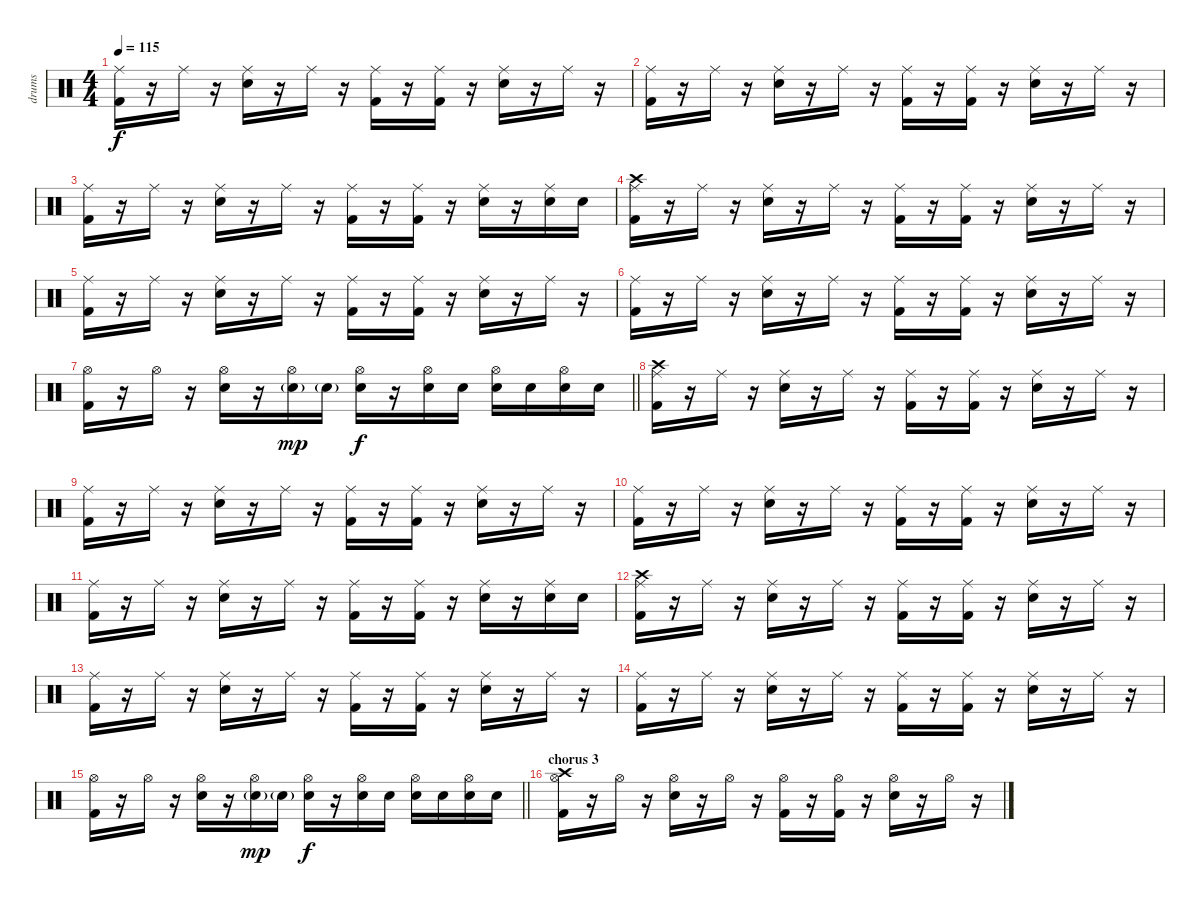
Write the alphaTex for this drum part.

\track ("drums" "drums") {instrument percussion}
\staff {score}
\articulation defaults
\ts (4 4)
\tempo 115
\clef neutral
\ks c
("Kick (hit) 2" "Ride (middle)").16{dy f} r.16 "Ride (middle)".16 r.16 ("Electric Snare (hit)" "Ride (middle)").16 r.16 "Ride (middle)".16 r.16 ("Kick (hit) 2" "Ride (middle)").16 r.16 ("Kick (hit) 2" "Ride (middle)").16 r.16 ("Electric Snare (hit)" "Ride (middle)").16 r.16 "Ride (middle)".16 r.16 |
("Kick (hit) 2" "Ride (middle)").16 r.16 "Ride (middle)".16 r.16 ("Electric Snare (hit)" "Ride (middle)").16 r.16 "Ride (middle)".16 r.16 ("Kick (hit) 2" "Ride (middle)").16 r.16 ("Kick (hit) 2" "Ride (middle)").16 r.16 ("Electric Snare (hit)" "Ride (middle)").16 r.16 "Ride (middle)".16 r.16 |
("Kick (hit) 2" "Ride (middle)").16 r.16 "Ride (middle)".16 r.16 ("Electric Snare (hit)" "Ride (middle)").16 r.16 "Ride (middle)".16 r.16 ("Kick (hit) 2" "Ride (middle)").16 r.16 ("Kick (hit) 2" "Ride (middle)").16 r.16 ("Electric Snare (hit)" "Ride (middle)").16 r.16 ("Electric Snare (hit)" "Ride (middle)").16 "Electric Snare (hit)".16 |
("Kick (hit) 2" "Ride (middle)" "Crash high (hit)").16 r.16 "Ride (middle)".16 r.16 ("Electric Snare (hit)" "Ride (middle)").16 r.16 "Ride (middle)".16 r.16 ("Kick (hit) 2" "Ride (middle)").16 r.16 ("Kick (hit) 2" "Ride (middle)").16 r.16 ("Electric Snare (hit)" "Ride (middle)").16 r.16 "Ride (middle)".16 r.16 |
("Kick (hit) 2" "Ride (middle)").16 r.16 "Ride (middle)".16 r.16 ("Electric Snare (hit)" "Ride (middle)").16 r.16 "Ride (middle)".16 r.16 ("Kick (hit) 2" "Ride (middle)").16 r.16 ("Kick (hit) 2" "Ride (middle)").16 r.16 ("Electric Snare (hit)" "Ride (middle)").16 r.16 "Ride (middle)".16 r.16 |
("Kick (hit) 2" "Ride (middle)").16 r.16 "Ride (middle)".16 r.16 ("Electric Snare (hit)" "Ride (middle)").16 r.16 "Ride (middle)".16 r.16 ("Kick (hit) 2" "Ride (middle)").16 r.16 ("Kick (hit) 2" "Ride (middle)").16 r.16 ("Electric Snare (hit)" "Ride (middle)").16 r.16 "Ride (middle)".16 r.16 |
\barLineRight lightlight
("Kick (hit) 2" "Hi-Hat (open)").16 r.16 "Hi-Hat (open)".16 r.16 ("Electric Snare (hit)" "Hi-Hat (open)").16 r.16 ("Electric Snare (hit)"{g} "Hi-Hat (open)").16{dy mp} "Electric Snare (hit)"{g}.16 ("Electric Snare (hit)" "Hi-Hat (open)").16{dy f} r.16 ("Electric Snare (hit)" "Hi-Hat (open)").16 "Electric Snare (hit)".16 ("Electric Snare (hit)" "Hi-Hat (open)").16 "Electric Snare (hit)".16 ("Electric Snare (hit)" "Hi-Hat (open)").16 "Electric Snare (hit)".16 |
("Kick (hit) 2" "Ride (middle)" "Crash high (hit)").16 r.16 "Ride (middle)".16 r.16 ("Electric Snare (hit)" "Ride (middle)").16 r.16 "Ride (middle)".16 r.16 ("Kick (hit) 2" "Ride (middle)").16 r.16 ("Kick (hit) 2" "Ride (middle)").16 r.16 ("Electric Snare (hit)" "Ride (middle)").16 r.16 "Ride (middle)".16 r.16 |
("Kick (hit) 2" "Ride (middle)").16 r.16 "Ride (middle)".16 r.16 ("Electric Snare (hit)" "Ride (middle)").16 r.16 "Ride (middle)".16 r.16 ("Kick (hit) 2" "Ride (middle)").16 r.16 ("Kick (hit) 2" "Ride (middle)").16 r.16 ("Electric Snare (hit)" "Ride (middle)").16 r.16 "Ride (middle)".16 r.16 |
("Kick (hit) 2" "Ride (middle)").16 r.16 "Ride (middle)".16 r.16 ("Electric Snare (hit)" "Ride (middle)").16 r.16 "Ride (middle)".16 r.16 ("Kick (hit) 2" "Ride (middle)").16 r.16 ("Kick (hit) 2" "Ride (middle)").16 r.16 ("Electric Snare (hit)" "Ride (middle)").16 r.16 "Ride (middle)".16 r.16 |
("Kick (hit) 2" "Ride (middle)").16 r.16 "Ride (middle)".16 r.16 ("Electric Snare (hit)" "Ride (middle)").16 r.16 "Ride (middle)".16 r.16 ("Kick (hit) 2" "Ride (middle)").16 r.16 ("Kick (hit) 2" "Ride (middle)").16 r.16 ("Electric Snare (hit)" "Ride (middle)").16 r.16 ("Electric Snare (hit)" "Ride (middle)").16 "Electric Snare (hit)".16 |
("Kick (hit) 2" "Ride (middle)" "Crash high (hit)").16 r.16 "Ride (middle)".16 r.16 ("Electric Snare (hit)" "Ride (middle)").16 r.16 "Ride (middle)".16 r.16 ("Kick (hit) 2" "Ride (middle)").16 r.16 ("Kick (hit) 2" "Ride (middle)").16 r.16 ("Electric Snare (hit)" "Ride (middle)").16 r.16 "Ride (middle)".16 r.16 |
("Kick (hit) 2" "Ride (middle)").16 r.16 "Ride (middle)".16 r.16 ("Electric Snare (hit)" "Ride (middle)").16 r.16 "Ride (middle)".16 r.16 ("Kick (hit) 2" "Ride (middle)").16 r.16 ("Kick (hit) 2" "Ride (middle)").16 r.16 ("Electric Snare (hit)" "Ride (middle)").16 r.16 "Ride (middle)".16 r.16 |
("Kick (hit) 2" "Ride (middle)").16 r.16 "Ride (middle)".16 r.16 ("Electric Snare (hit)" "Ride (middle)").16 r.16 "Ride (middle)".16 r.16 ("Kick (hit) 2" "Ride (middle)").16 r.16 ("Kick (hit) 2" "Ride (middle)").16 r.16 ("Electric Snare (hit)" "Ride (middle)").16 r.16 "Ride (middle)".16 r.16 |
\barLineRight lightlight
("Kick (hit) 2" "Hi-Hat (open)").16 r.16 "Hi-Hat (open)".16 r.16 ("Electric Snare (hit)" "Hi-Hat (open)").16 r.16 ("Electric Snare (hit)"{g} "Hi-Hat (open)").16{dy mp} "Electric Snare (hit)"{g}.16 ("Electric Snare (hit)" "Hi-Hat (open)").16{dy f} r.16 ("Electric Snare (hit)" "Hi-Hat (open)").16 "Electric Snare (hit)".16 ("Electric Snare (hit)" "Hi-Hat (open)").16 "Electric Snare (hit)".16 ("Electric Snare (hit)" "Hi-Hat (open)").16 "Electric Snare (hit)".16 |
\section ("" "chorus 3")
("Kick (hit) 2" "Hi-Hat (open)" "Crash high (hit)").16 r.16 "Hi-Hat (open)".16 r.16 ("Electric Snare (hit)" "Hi-Hat (open)").16 r.16 "Hi-Hat (open)".16 r.16 ("Kick (hit) 2" "Hi-Hat (open)").16 r.16 ("Kick (hit) 2" "Hi-Hat (open)").16 r.16 ("Electric Snare (hit)" "Hi-Hat (open)").16 r.16 "Hi-Hat (open)".16 r.16
